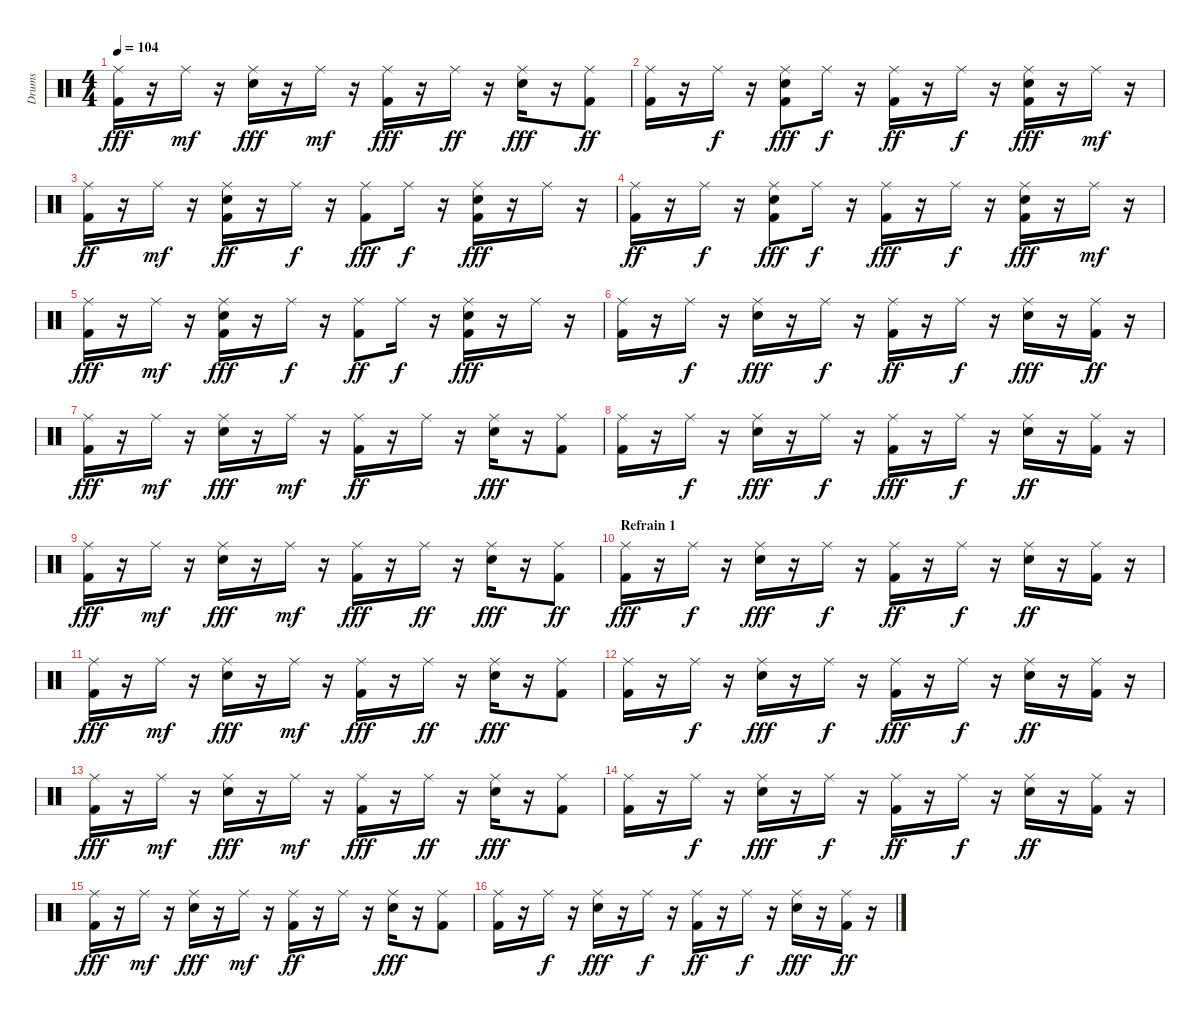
\track ("Drums" "Drums") {instrument percussion}
\staff {score}
\articulation defaults
\ts (4 4)
\tempo 104
\clef neutral
\ks c
("Ride (middle)" "Kick (hit) 2").16{dy fff} r.16 "Ride (middle)".16{dy mf} r.16 ("Ride (middle)" "Snare (hit) 2").16{dy fff} r.16 "Ride (middle)".16{dy mf} r.16 ("Ride (middle)" "Kick (hit) 2").16{dy fff} r.16 "Ride (middle)".16{dy ff} r.16 ("Ride (middle)" "Snare (hit) 2").16{dy fff} r.16 ("Ride (middle)" "Kick (hit) 2").8{dy ff} |
("Kick (hit) 2" "Ride (middle)").16 r.16 "Ride (middle)".16{dy f} r.16 ("Kick (hit) 2" "Ride (middle)" "Snare (hit) 2").8{dy fff} "Ride (middle)".16{dy f} r.16 ("Kick (hit) 2" "Ride (middle)").16{dy ff} r.16 "Ride (middle)".16{dy f} r.16 ("Snare (hit) 2" "Kick (hit) 2" "Ride (middle)").16{dy fff} r.16 "Ride (middle)".16{dy mf} r.16 |
("Kick (hit) 2" "Ride (middle)").16{dy ff} r.16 "Ride (middle)".16{dy mf} r.16 ("Kick (hit) 2" "Snare (hit) 2" "Ride (middle)").16{dy ff} r.16 "Ride (middle)".16{dy f} r.16 ("Ride (middle)" "Kick (hit) 2").8{dy fff} "Ride (middle)".16{dy f} r.16 ("Ride (middle)" "Snare (hit) 2" "Kick (hit) 2").16{dy fff} r.16 "Ride (middle)".16 r.16 |
("Ride (middle)" "Kick (hit) 2").16{dy ff} r.16 "Ride (middle)".16{dy f} r.16 ("Ride (middle)" "Snare (hit) 2" "Kick (hit) 2").8{dy fff} "Ride (middle)".16{dy f} r.16 ("Ride (middle)" "Kick (hit) 2").16{dy fff} r.16 "Ride (middle)".16{dy f} r.16 ("Ride (middle)" "Snare (hit) 2" "Kick (hit) 2").16{dy fff} r.16 "Ride (middle)".16{dy mf} r.16 |
("Ride (middle)" "Kick (hit) 2").16{dy fff} r.16 "Ride (middle)".16{dy mf} r.16 ("Kick (hit) 2" "Ride (middle)" "Snare (hit) 2").16{dy fff} r.16 "Ride (middle)".16{dy f} r.16 ("Kick (hit) 2" "Ride (middle)").8{dy ff} "Ride (middle)".16{dy f} r.16 ("Snare (hit) 2" "Ride (middle)" "Kick (hit) 2").16{dy fff} r.16 "Ride (middle)".16 r.16 |
("Ride (middle)" "Kick (hit) 2").16 r.16 "Ride (middle)".16{dy f} r.16 ("Snare (hit) 2" "Ride (middle)").16{dy fff} r.16 "Ride (middle)".16{dy f} r.16 ("Kick (hit) 2" "Ride (middle)").16{dy ff} r.16 "Ride (middle)".16{dy f} r.16 ("Ride (middle)" "Snare (hit) 2").16{dy fff} r.16 ("Kick (hit) 2" "Ride (middle)").16{dy ff} r.16 |
("Kick (hit) 2" "Ride (middle)").16{dy fff} r.16 "Ride (middle)".16{dy mf} r.16 ("Snare (hit) 2" "Ride (middle)").16{dy fff} r.16 "Ride (middle)".16{dy mf} r.16 ("Kick (hit) 2" "Ride (middle)").16{dy ff} r.16 "Ride (middle)".16 r.16 ("Ride (middle)" "Snare (hit) 2").16{dy fff} r.16 ("Kick (hit) 2" "Ride (middle)").8 |
("Ride (middle)" "Kick (hit) 2").16 r.16 "Ride (middle)".16{dy f} r.16 ("Snare (hit) 2" "Ride (middle)").16{dy fff} r.16 "Ride (middle)".16{dy f} r.16 ("Ride (middle)" "Kick (hit) 2").16{dy fff} r.16 "Ride (middle)".16{dy f} r.16 ("Snare (hit) 2" "Ride (middle)").16{dy ff} r.16 ("Kick (hit) 2" "Ride (middle)").16 r.16 |
("Ride (middle)" "Kick (hit) 2").16{dy fff} r.16 "Ride (middle)".16{dy mf} r.16 ("Ride (middle)" "Snare (hit) 2").16{dy fff} r.16 "Ride (middle)".16{dy mf} r.16 ("Ride (middle)" "Kick (hit) 2").16{dy fff} r.16 "Ride (middle)".16{dy ff} r.16 ("Ride (middle)" "Snare (hit) 2").16{dy fff} r.16 ("Ride (middle)" "Kick (hit) 2").8{dy ff} |
\section ("" "Refrain 1")
("Kick (hit) 2" "Ride (middle)").16{dy fff} r.16 "Ride (middle)".16{dy f} r.16 ("Snare (hit) 2" "Ride (middle)").16{dy fff} r.16 "Ride (middle)".16{dy f} r.16 ("Kick (hit) 2" "Ride (middle)").16{dy ff} r.16 "Ride (middle)".16{dy f} r.16 ("Snare (hit) 2" "Ride (middle)").16{dy ff} r.16 ("Kick (hit) 2" "Ride (middle)").16 r.16 |
("Kick (hit) 2" "Ride (middle)").16{dy fff} r.16 "Ride (middle)".16{dy mf} r.16 ("Ride (middle)" "Snare (hit) 2").16{dy fff} r.16 "Ride (middle)".16{dy mf} r.16 ("Ride (middle)" "Kick (hit) 2").16{dy fff} r.16 "Ride (middle)".16{dy ff} r.16 ("Snare (hit) 2" "Ride (middle)").16{dy fff} r.16 ("Kick (hit) 2" "Ride (middle)").8 |
("Kick (hit) 2" "Ride (middle)").16 r.16 "Ride (middle)".16{dy f} r.16 ("Ride (middle)" "Snare (hit) 2").16{dy fff} r.16 "Ride (middle)".16{dy f} r.16 ("Ride (middle)" "Kick (hit) 2").16{dy fff} r.16 "Ride (middle)".16{dy f} r.16 ("Snare (hit) 2" "Ride (middle)").16{dy ff} r.16 ("Kick (hit) 2" "Ride (middle)").16 r.16 |
("Ride (middle)" "Kick (hit) 2").16{dy fff} r.16 "Ride (middle)".16{dy mf} r.16 ("Snare (hit) 2" "Ride (middle)").16{dy fff} r.16 "Ride (middle)".16{dy mf} r.16 ("Ride (middle)" "Kick (hit) 2").16{dy fff} r.16 "Ride (middle)".16{dy ff} r.16 ("Snare (hit) 2" "Ride (middle)").16{dy fff} r.16 ("Kick (hit) 2" "Ride (middle)").8 |
("Kick (hit) 2" "Ride (middle)").16 r.16 "Ride (middle)".16{dy f} r.16 ("Snare (hit) 2" "Ride (middle)").16{dy fff} r.16 "Ride (middle)".16{dy f} r.16 ("Kick (hit) 2" "Ride (middle)").16{dy ff} r.16 "Ride (middle)".16{dy f} r.16 ("Snare (hit) 2" "Ride (middle)").16{dy ff} r.16 ("Kick (hit) 2" "Ride (middle)").16 r.16 |
("Kick (hit) 2" "Ride (middle)").16{dy fff} r.16 "Ride (middle)".16{dy mf} r.16 ("Ride (middle)" "Snare (hit) 2").16{dy fff} r.16 "Ride (middle)".16{dy mf} r.16 ("Kick (hit) 2" "Ride (middle)").16{dy ff} r.16 "Ride (middle)".16 r.16 ("Snare (hit) 2" "Ride (middle)").16{dy fff} r.16 ("Kick (hit) 2" "Ride (middle)").8 |
("Ride (middle)" "Kick (hit) 2").16 r.16 "Ride (middle)".16{dy f} r.16 ("Snare (hit) 2" "Ride (middle)").16{dy fff} r.16 "Ride (middle)".16{dy f} r.16 ("Kick (hit) 2" "Ride (middle)").16{dy ff} r.16 "Ride (middle)".16{dy f} r.16 ("Ride (middle)" "Snare (hit) 2").16{dy fff} r.16 ("Ride (middle)" "Kick (hit) 2").16{dy ff} r.16
